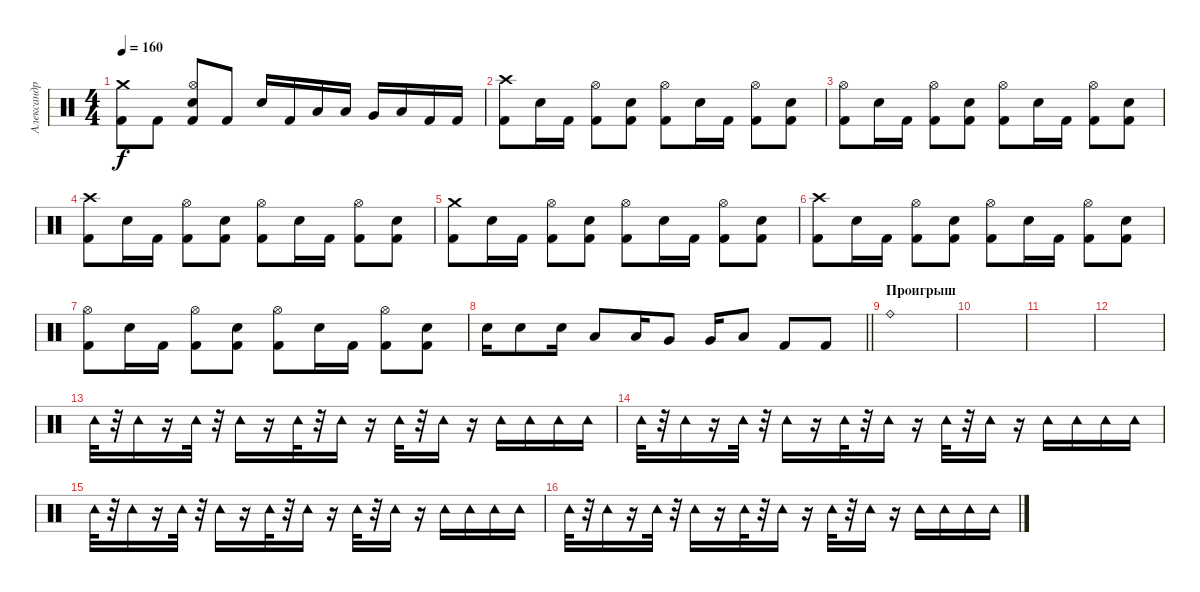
\track ("Александр Карпухин" "Александр ") {instrument percussion}
\staff {score}
\articulation defaults
\ts (4 4)
\tempo 160
\clef neutral
\ks c
("Crash medium (hit)" "Kick (hit) 2").8{dy f} "Kick (hit) 2".8 ("Hi-Hat (open)" "Electric Snare (hit)" "Kick (hit) 2").8 "Kick (hit) 2".8 "Electric Snare (hit)".16 "Kick (hit) 2".16 "Low Tom (hit)".16 "Low Tom (hit)".16 "Very Low Tom (hit)".16 "Low Floor Tom (hit)".16 "Kick (hit) 2".16 "Kick (hit) 2".16 |
("Crash high (hit)" "Kick (hit) 2").8 "Electric Snare (hit)".16 "Kick (hit) 2".16 ("Hi-Hat (open)" "Kick (hit) 2").8 ("Electric Snare (hit)" "Kick (hit) 2").8 ("Hi-Hat (open)" "Kick (hit) 2").8 "Electric Snare (hit)".16 "Kick (hit) 2".16 ("Hi-Hat (open)" "Kick (hit) 2").8 ("Electric Snare (hit)" "Kick (hit) 2").8 |
("Hi-Hat (open)" "Kick (hit) 2").8 "Electric Snare (hit)".16 "Kick (hit) 2".16 ("Hi-Hat (open)" "Kick (hit) 2").8 ("Electric Snare (hit)" "Kick (hit) 2").8 ("Hi-Hat (open)" "Kick (hit) 2").8 "Electric Snare (hit)".16 "Kick (hit) 2".16 ("Hi-Hat (open)" "Kick (hit) 2").8 ("Electric Snare (hit)" "Kick (hit) 2").8 |
("Crash high (hit)" "Kick (hit) 2").8 "Electric Snare (hit)".16 "Kick (hit) 2".16 ("Hi-Hat (open)" "Kick (hit) 2").8 ("Electric Snare (hit)" "Kick (hit) 2").8 ("Hi-Hat (open)" "Kick (hit) 2").8 "Electric Snare (hit)".16 "Kick (hit) 2".16 ("Hi-Hat (open)" "Kick (hit) 2").8 ("Electric Snare (hit)" "Kick (hit) 2").8 |
("Crash medium (hit)" "Kick (hit) 2").8 "Electric Snare (hit)".16 "Kick (hit) 2".16 ("Hi-Hat (open)" "Kick (hit) 2").8 ("Electric Snare (hit)" "Kick (hit) 2").8 ("Hi-Hat (open)" "Kick (hit) 2").8 "Electric Snare (hit)".16 "Kick (hit) 2".16 ("Hi-Hat (open)" "Kick (hit) 2").8 ("Electric Snare (hit)" "Kick (hit) 2").8 |
("Crash high (hit)" "Kick (hit) 2").8 "Electric Snare (hit)".16 "Kick (hit) 2".16 ("Hi-Hat (open)" "Kick (hit) 2").8 ("Electric Snare (hit)" "Kick (hit) 2").8 ("Hi-Hat (open)" "Kick (hit) 2").8 "Electric Snare (hit)".16 "Kick (hit) 2".16 ("Hi-Hat (open)" "Kick (hit) 2").8 ("Electric Snare (hit)" "Kick (hit) 2").8 |
("Hi-Hat (open)" "Kick (hit) 2").8 "Electric Snare (hit)".16 "Kick (hit) 2".16 ("Hi-Hat (open)" "Kick (hit) 2").8 ("Electric Snare (hit)" "Kick (hit) 2").8 ("Hi-Hat (open)" "Kick (hit) 2").8 "Electric Snare (hit)".16 "Kick (hit) 2".16 ("Hi-Hat (open)" "Kick (hit) 2").8 ("Electric Snare (hit)" "Kick (hit) 2").8 |
\barLineRight lightlight "Electric Snare (hit)".16 "Electric Snare (hit)".8 "Electric Snare (hit)".16 "Low Tom (hit)".8 "Low Tom (hit)".16 "Very Low Tom (hit)".8 "Very Low Tom (hit)".16 "Low Floor Tom (hit)".8 "Kick (hit) 2".8 "Kick (hit) 2".8
|
\section ("" "Проигрыш")
"Ride (bell)".1 |
|
|
|
"Tambourine (hit)".32 r.32 "Tambourine (hit)".16 r.16 "Tambourine (hit)".32 r.32 "Tambourine (hit)".16 r.16 "Tambourine (hit)".32 r.32 "Tambourine (hit)".16 r.16 "Tambourine (hit)".32 r.32 "Tambourine (hit)".16 r.16 "Tambourine (hit)".16 "Tambourine (hit)".16 "Tambourine (hit)".16 "Tambourine (hit)".16 |
"Tambourine (hit)".32 r.32 "Tambourine (hit)".16 r.16 "Tambourine (hit)".32 r.32 "Tambourine (hit)".16 r.16 "Tambourine (hit)".32 r.32 "Tambourine (hit)".16 r.16 "Tambourine (hit)".32 r.32 "Tambourine (hit)".16 r.16 "Tambourine (hit)".16 "Tambourine (hit)".16 "Tambourine (hit)".16 "Tambourine (hit)".16 |
"Tambourine (hit)".32 r.32 "Tambourine (hit)".16 r.16 "Tambourine (hit)".32 r.32 "Tambourine (hit)".16 r.16 "Tambourine (hit)".32 r.32 "Tambourine (hit)".16 r.16 "Tambourine (hit)".32 r.32 "Tambourine (hit)".16 r.16 "Tambourine (hit)".16 "Tambourine (hit)".16 "Tambourine (hit)".16 "Tambourine (hit)".16 |
"Tambourine (hit)".32 r.32 "Tambourine (hit)".16 r.16 "Tambourine (hit)".32 r.32 "Tambourine (hit)".16 r.16 "Tambourine (hit)".32 r.32 "Tambourine (hit)".16 r.16 "Tambourine (hit)".32 r.32 "Tambourine (hit)".16 r.16 "Tambourine (hit)".16 "Tambourine (hit)".16 "Tambourine (hit)".16 "Tambourine (hit)".16
